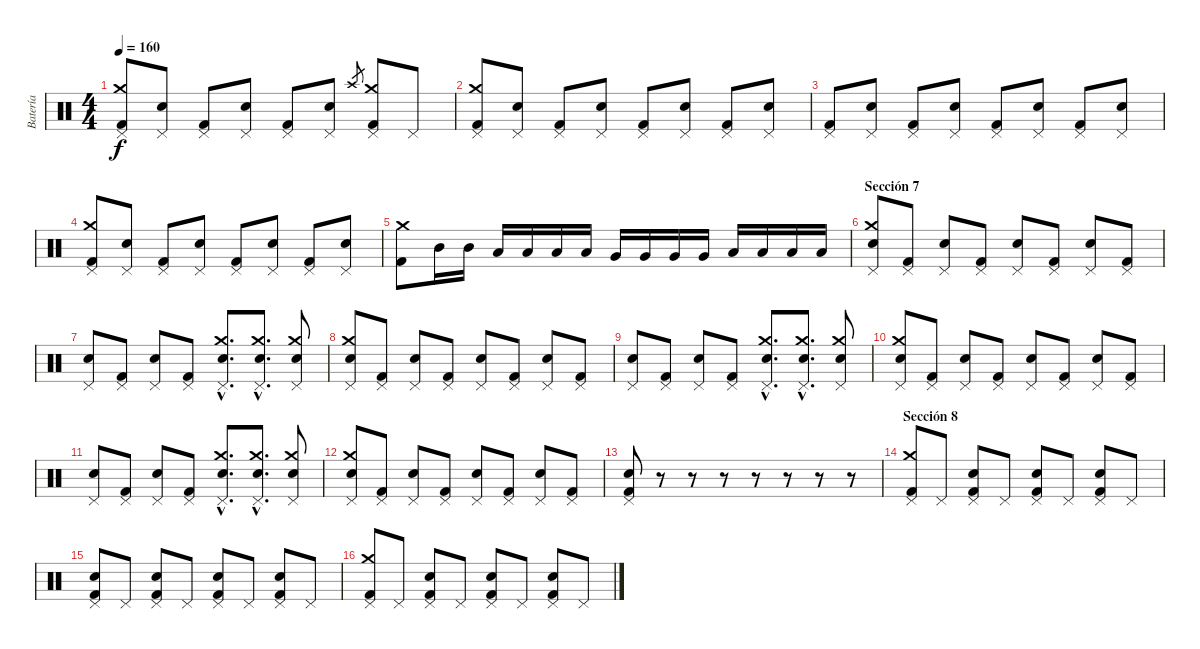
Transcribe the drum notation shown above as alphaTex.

\track ("Batería" "Batería") {instrument percussion}
\staff {score}
\articulation defaults
\ts (4 4)
\tempo 160
\clef neutral
\ks c
("Pedal Hi-Hat (hit)" "Crash medium (hit)" "Kick (hit) 2").8{dy f} ("Pedal Hi-Hat (hit)" "Electric Snare (hit)").8 ("Pedal Hi-Hat (hit)" "Kick (hit) 2").8 ("Pedal Hi-Hat (hit)" "Electric Snare (hit)").8 ("Pedal Hi-Hat (hit)" "Kick (hit) 2").8 ("Pedal Hi-Hat (hit)" "Electric Snare (hit)").8 "Crash high (hit)".8{gr} ("Pedal Hi-Hat (hit)" "Crash medium (hit)" "Kick (hit) 2").8 "Pedal Hi-Hat (hit)".8 |
("Pedal Hi-Hat (hit)" "Crash medium (hit)" "Kick (hit) 2").8 ("Pedal Hi-Hat (hit)" "Electric Snare (hit)").8 ("Pedal Hi-Hat (hit)" "Kick (hit) 2").8 ("Pedal Hi-Hat (hit)" "Electric Snare (hit)").8 ("Pedal Hi-Hat (hit)" "Kick (hit) 2").8 ("Pedal Hi-Hat (hit)" "Electric Snare (hit)").8 ("Pedal Hi-Hat (hit)" "Kick (hit) 2").8 ("Pedal Hi-Hat (hit)" "Electric Snare (hit)").8 |
("Pedal Hi-Hat (hit)" "Kick (hit) 2").8 ("Pedal Hi-Hat (hit)" "Electric Snare (hit)").8 ("Pedal Hi-Hat (hit)" "Kick (hit) 2").8 ("Pedal Hi-Hat (hit)" "Electric Snare (hit)").8 ("Pedal Hi-Hat (hit)" "Kick (hit) 2").8 ("Pedal Hi-Hat (hit)" "Electric Snare (hit)").8 ("Pedal Hi-Hat (hit)" "Kick (hit) 2").8 ("Pedal Hi-Hat (hit)" "Electric Snare (hit)").8 |
("Pedal Hi-Hat (hit)" "Crash medium (hit)" "Kick (hit) 2").8 ("Pedal Hi-Hat (hit)" "Electric Snare (hit)").8 ("Pedal Hi-Hat (hit)" "Kick (hit) 2").8 ("Pedal Hi-Hat (hit)" "Electric Snare (hit)").8 ("Pedal Hi-Hat (hit)" "Kick (hit) 2").8 ("Pedal Hi-Hat (hit)" "Electric Snare (hit)").8 ("Pedal Hi-Hat (hit)" "Kick (hit) 2").8 ("Pedal Hi-Hat (hit)" "Electric Snare (hit)").8 |
("Crash medium (hit)" "Kick (hit) 2").8 "Mid Tom (hit)".16 "Mid Tom (hit)".16 "Low Tom (hit)".16 "Low Tom (hit)".16 "Low Tom (hit)".16 "Low Tom (hit)".16 "Very Low Tom (hit)".16 "Very Low Tom (hit)".16 "Very Low Tom (hit)".16 "Very Low Tom (hit)".16 "Low Floor Tom (hit)".16 "Low Floor Tom (hit)".16 "Low Floor Tom (hit)".16 "Low Floor Tom (hit)".16 |
\section ("" "Sección 7")
("Pedal Hi-Hat (hit)" "Crash medium (hit)" "Electric Snare (hit)").8 ("Pedal Hi-Hat (hit)" "Kick (hit) 2").8 ("Pedal Hi-Hat (hit)" "Electric Snare (hit)").8 ("Pedal Hi-Hat (hit)" "Kick (hit) 2").8 ("Pedal Hi-Hat (hit)" "Electric Snare (hit)").8 ("Pedal Hi-Hat (hit)" "Kick (hit) 2").8 ("Pedal Hi-Hat (hit)" "Electric Snare (hit)").8 ("Pedal Hi-Hat (hit)" "Kick (hit) 2").8 |
("Pedal Hi-Hat (hit)" "Electric Snare (hit)").8 ("Pedal Hi-Hat (hit)" "Kick (hit) 2").8 ("Pedal Hi-Hat (hit)" "Electric Snare (hit)").8 ("Pedal Hi-Hat (hit)" "Kick (hit) 2").8 ("Pedal Hi-Hat (hit)"{hac} "Crash medium (hit)"{hac} "Electric Snare (hit)"{hac}).8{d} ("Pedal Hi-Hat (hit)"{hac} "Crash medium (hit)"{hac} "Electric Snare (hit)"{hac}).8{d} ("Pedal Hi-Hat (hit)" "Crash medium (hit)" "Electric Snare (hit)").8 |
("Pedal Hi-Hat (hit)" "Crash medium (hit)" "Electric Snare (hit)").8 ("Pedal Hi-Hat (hit)" "Kick (hit) 2").8 ("Pedal Hi-Hat (hit)" "Electric Snare (hit)").8 ("Pedal Hi-Hat (hit)" "Kick (hit) 2").8 ("Pedal Hi-Hat (hit)" "Electric Snare (hit)").8 ("Pedal Hi-Hat (hit)" "Kick (hit) 2").8 ("Pedal Hi-Hat (hit)" "Electric Snare (hit)").8 ("Pedal Hi-Hat (hit)" "Kick (hit) 2").8 |
("Pedal Hi-Hat (hit)" "Electric Snare (hit)").8 ("Pedal Hi-Hat (hit)" "Kick (hit) 2").8 ("Pedal Hi-Hat (hit)" "Electric Snare (hit)").8 ("Pedal Hi-Hat (hit)" "Kick (hit) 2").8 ("Pedal Hi-Hat (hit)"{hac} "Crash medium (hit)"{hac} "Electric Snare (hit)"{hac}).8{d} ("Pedal Hi-Hat (hit)"{hac} "Crash medium (hit)"{hac} "Electric Snare (hit)"{hac}).8{d} ("Pedal Hi-Hat (hit)" "Crash medium (hit)" "Electric Snare (hit)").8 |
("Pedal Hi-Hat (hit)" "Crash medium (hit)" "Electric Snare (hit)").8 ("Pedal Hi-Hat (hit)" "Kick (hit) 2").8 ("Pedal Hi-Hat (hit)" "Electric Snare (hit)").8 ("Pedal Hi-Hat (hit)" "Kick (hit) 2").8 ("Pedal Hi-Hat (hit)" "Electric Snare (hit)").8 ("Pedal Hi-Hat (hit)" "Kick (hit) 2").8 ("Pedal Hi-Hat (hit)" "Electric Snare (hit)").8 ("Pedal Hi-Hat (hit)" "Kick (hit) 2").8 |
("Pedal Hi-Hat (hit)" "Electric Snare (hit)").8 ("Pedal Hi-Hat (hit)" "Kick (hit) 2").8 ("Pedal Hi-Hat (hit)" "Electric Snare (hit)").8 ("Pedal Hi-Hat (hit)" "Kick (hit) 2").8 ("Pedal Hi-Hat (hit)"{hac} "Crash medium (hit)"{hac} "Electric Snare (hit)"{hac}).8{d} ("Pedal Hi-Hat (hit)"{hac} "Crash medium (hit)"{hac} "Electric Snare (hit)"{hac}).8{d} ("Pedal Hi-Hat (hit)" "Crash medium (hit)" "Electric Snare (hit)").8 |
("Pedal Hi-Hat (hit)" "Crash medium (hit)" "Electric Snare (hit)").8 ("Pedal Hi-Hat (hit)" "Kick (hit) 2").8 ("Pedal Hi-Hat (hit)" "Electric Snare (hit)").8 ("Pedal Hi-Hat (hit)" "Kick (hit) 2").8 ("Pedal Hi-Hat (hit)" "Electric Snare (hit)").8 ("Pedal Hi-Hat (hit)" "Kick (hit) 2").8 ("Pedal Hi-Hat (hit)" "Electric Snare (hit)").8 ("Pedal Hi-Hat (hit)" "Kick (hit) 2").8 |
("Pedal Hi-Hat (hit)" "Electric Snare (hit)" "Kick (hit) 2").8 r.8 r.8 r.8 r.8 r.8 r.8 r.8 |
\section ("" "Sección 8")
("Pedal Hi-Hat (hit)" "Crash medium (hit)" "Kick (hit) 2").8 "Pedal Hi-Hat (hit)".8 ("Pedal Hi-Hat (hit)" "Electric Snare (hit)" "Kick (hit) 2").8 "Pedal Hi-Hat (hit)".8 ("Pedal Hi-Hat (hit)" "Electric Snare (hit)" "Kick (hit) 2").8 "Pedal Hi-Hat (hit)".8 ("Pedal Hi-Hat (hit)" "Electric Snare (hit)" "Kick (hit) 2").8 "Pedal Hi-Hat (hit)".8 |
("Pedal Hi-Hat (hit)" "Electric Snare (hit)" "Kick (hit) 2").8 "Pedal Hi-Hat (hit)".8 ("Pedal Hi-Hat (hit)" "Electric Snare (hit)" "Kick (hit) 2").8 "Pedal Hi-Hat (hit)".8 ("Pedal Hi-Hat (hit)" "Electric Snare (hit)" "Kick (hit) 2").8 "Pedal Hi-Hat (hit)".8 ("Pedal Hi-Hat (hit)" "Electric Snare (hit)" "Kick (hit) 2").8 "Pedal Hi-Hat (hit)".8 |
("Pedal Hi-Hat (hit)" "Crash medium (hit)" "Kick (hit) 2").8 "Pedal Hi-Hat (hit)".8 ("Pedal Hi-Hat (hit)" "Electric Snare (hit)" "Kick (hit) 2").8 "Pedal Hi-Hat (hit)".8 ("Pedal Hi-Hat (hit)" "Electric Snare (hit)" "Kick (hit) 2").8 "Pedal Hi-Hat (hit)".8 ("Pedal Hi-Hat (hit)" "Electric Snare (hit)" "Kick (hit) 2").8 "Pedal Hi-Hat (hit)".8
